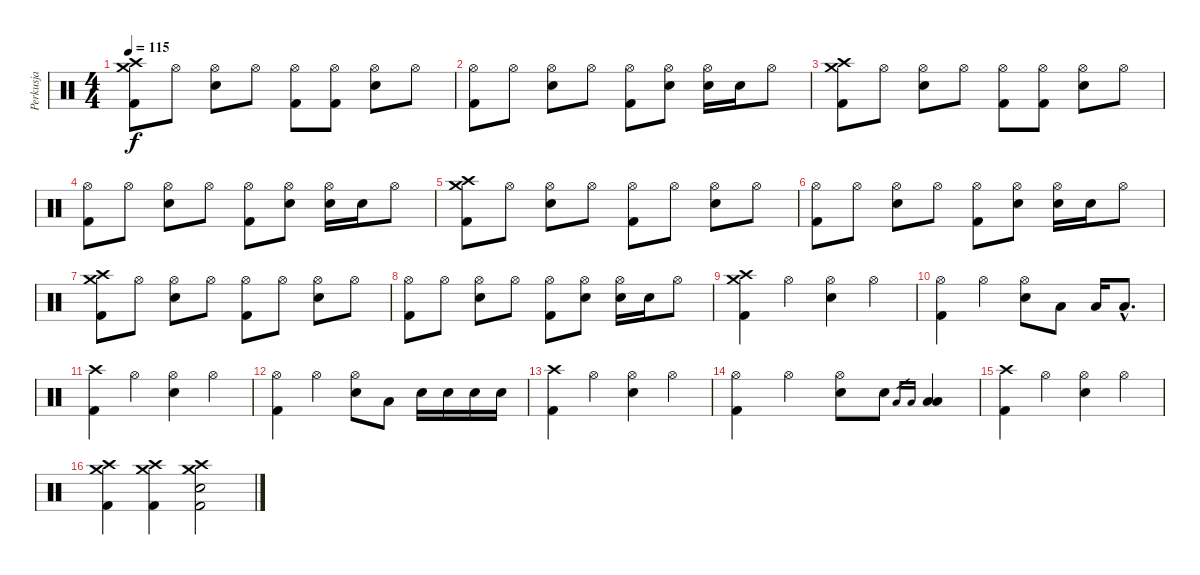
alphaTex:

\track ("Perkusja" "Perkusja") {instrument percussion}
\staff {score}
\articulation defaults
\ts (4 4)
\tempo 115
\clef neutral
\ks c
("Crash high (hit)" "Crash medium (hit)" "Kick (hit) 2").8{dy f} "Hi-Hat (open)".8 ("Hi-Hat (open)" "Electric Snare (hit)").8 "Hi-Hat (open)".8 ("Hi-Hat (open)" "Kick (hit) 2").8 ("Hi-Hat (open)" "Kick (hit) 2").8 ("Hi-Hat (open)" "Electric Snare (hit)").8 "Hi-Hat (open)".8 |
("Hi-Hat (open)" "Kick (hit) 2").8 "Hi-Hat (open)".8 ("Hi-Hat (open)" "Electric Snare (hit)").8 "Hi-Hat (open)".8 ("Hi-Hat (open)" "Kick (hit) 2").8 ("Hi-Hat (open)" "Electric Snare (hit)").8 ("Hi-Hat (open)" "Electric Snare (hit)").16 "Electric Snare (hit)".16 "Hi-Hat (open)".8 |
("Crash high (hit)" "Crash medium (hit)" "Kick (hit) 2").8 "Hi-Hat (open)".8 ("Hi-Hat (open)" "Electric Snare (hit)").8 "Hi-Hat (open)".8 ("Hi-Hat (open)" "Kick (hit) 2").8 ("Hi-Hat (open)" "Kick (hit) 2").8 ("Hi-Hat (open)" "Electric Snare (hit)").8 "Hi-Hat (open)".8 |
("Hi-Hat (open)" "Kick (hit) 2").8 "Hi-Hat (open)".8 ("Hi-Hat (open)" "Electric Snare (hit)").8 "Hi-Hat (open)".8 ("Hi-Hat (open)" "Kick (hit) 2").8 ("Hi-Hat (open)" "Electric Snare (hit)").8 ("Hi-Hat (open)" "Electric Snare (hit)").16 "Electric Snare (hit)".16 "Hi-Hat (open)".8 |
("Crash high (hit)" "Crash medium (hit)" "Kick (hit) 2").8 "Hi-Hat (open)".8 ("Hi-Hat (open)" "Electric Snare (hit)").8 "Hi-Hat (open)".8 ("Hi-Hat (open)" "Kick (hit) 2").8 "Hi-Hat (open)".8 ("Hi-Hat (open)" "Electric Snare (hit)").8 "Hi-Hat (open)".8 |
("Hi-Hat (open)" "Kick (hit) 2").8 "Hi-Hat (open)".8 ("Hi-Hat (open)" "Electric Snare (hit)").8 "Hi-Hat (open)".8 ("Hi-Hat (open)" "Kick (hit) 2").8 ("Hi-Hat (open)" "Electric Snare (hit)").8 ("Hi-Hat (open)" "Electric Snare (hit)").16 "Electric Snare (hit)".16 "Hi-Hat (open)".8 |
("Crash high (hit)" "Crash medium (hit)" "Kick (hit) 2").8 "Hi-Hat (open)".8 ("Hi-Hat (open)" "Electric Snare (hit)").8 "Hi-Hat (open)".8 ("Hi-Hat (open)" "Kick (hit) 2").8 "Hi-Hat (open)".8 ("Hi-Hat (open)" "Electric Snare (hit)").8 "Hi-Hat (open)".8 |
("Hi-Hat (open)" "Kick (hit) 2").8 "Hi-Hat (open)".8 ("Hi-Hat (open)" "Electric Snare (hit)").8 "Hi-Hat (open)".8 ("Hi-Hat (open)" "Kick (hit) 2").8 ("Hi-Hat (open)" "Electric Snare (hit)").8 ("Hi-Hat (open)" "Electric Snare (hit)").16 "Electric Snare (hit)".16 "Hi-Hat (open)".8 |
("Crash high (hit)" "Crash medium (hit)" "Kick (hit) 2").4 "Hi-Hat (open)".4 ("Hi-Hat (open)" "Electric Snare (hit)").4 "Hi-Hat (open)".4 |
("Hi-Hat (open)" "Kick (hit) 2").4 "Hi-Hat (open)".4 ("Hi-Hat (open)" "Electric Snare (hit)").8 "Low Floor Tom (hit)".8 "Low Floor Tom (hit)".16 "Low Floor Tom (hit)"{hac}.8{d} |
("Crash high (hit)" "Kick (hit) 2").4 "Hi-Hat (open)".4 ("Hi-Hat (open)" "Electric Snare (hit)").4 "Hi-Hat (open)".4 |
("Hi-Hat (open)" "Kick (hit) 2").4 "Hi-Hat (open)".4 ("Hi-Hat (open)" "Electric Snare (hit)").8 "Low Floor Tom (hit)".8 "Electric Snare (hit)".16 "Electric Snare (hit)".16 "Electric Snare (hit)".16 "Electric Snare (hit)".16 |
("Crash high (hit)" "Kick (hit) 2").4 "Hi-Hat (open)".4 ("Hi-Hat (open)" "Electric Snare (hit)").4 "Hi-Hat (open)".4 |
("Hi-Hat (open)" "Kick (hit) 2").4 "Hi-Hat (open)".4 ("Hi-Hat (open)" "Electric Snare (hit)").8 "Electric Snare (hit)".8 "Low Floor Tom (hit)".16{gr} "Low Floor Tom (hit)".16{gr} ("Low Floor Tom (hit)" "Low Floor Tom (hit)").4 |
("Crash high (hit)" "Kick (hit) 2").4 "Hi-Hat (open)".4 ("Hi-Hat (open)" "Electric Snare (hit)").4 "Hi-Hat (open)".4 |
("Crash high (hit)" "Crash medium (hit)" "Kick (hit) 2").4 ("Crash high (hit)" "Crash medium (hit)" "Kick (hit) 2").4 ("Crash high (hit)" "Crash medium (hit)" "Electric Snare (hit)" "Kick (hit) 2").2
